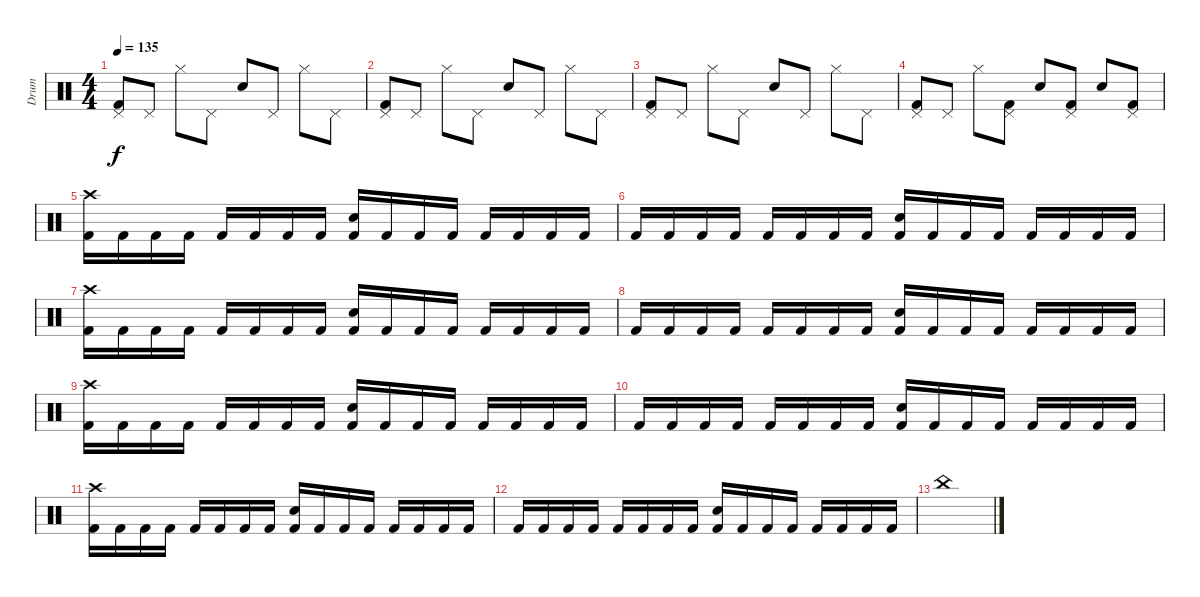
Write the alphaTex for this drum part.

\track ("Drum" "Drum") {instrument percussion}
\staff {score}
\articulation defaults
\ts (4 4)
\tempo 135
\clef neutral
\ks c
("Pedal Hi-Hat (hit)" "Kick (hit) 2").8{dy f} "Pedal Hi-Hat (hit)".8 "Hi-Hat (closed)".8 "Pedal Hi-Hat (hit)".8 "Electric Snare (hit)".8 "Pedal Hi-Hat (hit)".8 "Hi-Hat (closed)".8 "Pedal Hi-Hat (hit)".8 |
("Pedal Hi-Hat (hit)" "Kick (hit) 2").8 "Pedal Hi-Hat (hit)".8 "Hi-Hat (closed)".8 "Pedal Hi-Hat (hit)".8 "Electric Snare (hit)".8 "Pedal Hi-Hat (hit)".8 "Hi-Hat (closed)".8 "Pedal Hi-Hat (hit)".8 |
("Pedal Hi-Hat (hit)" "Kick (hit) 2").8 "Pedal Hi-Hat (hit)".8 "Hi-Hat (closed)".8 "Pedal Hi-Hat (hit)".8 "Electric Snare (hit)".8 "Pedal Hi-Hat (hit)".8 "Hi-Hat (closed)".8 "Pedal Hi-Hat (hit)".8 |
("Pedal Hi-Hat (hit)" "Kick (hit) 2").8 "Pedal Hi-Hat (hit)".8 "Hi-Hat (closed)".8 ("Pedal Hi-Hat (hit)" "Kick (hit) 2").8 "Electric Snare (hit)".8 ("Pedal Hi-Hat (hit)" "Kick (hit) 2").8 "Electric Snare (hit)".8 ("Pedal Hi-Hat (hit)" "Kick (hit) 2").8 |
("Crash high (hit)" "Kick (hit) 2").16 "Kick (hit) 2".16 "Kick (hit) 2".16 "Kick (hit) 2".16 "Kick (hit) 2".16 "Kick (hit) 2".16 "Kick (hit) 2".16 "Kick (hit) 2".16 ("Electric Snare (hit)" "Kick (hit) 2").16 "Kick (hit) 2".16 "Kick (hit) 2".16 "Kick (hit) 2".16 "Kick (hit) 2".16 "Kick (hit) 2".16 "Kick (hit) 2".16 "Kick (hit) 2".16 |
"Kick (hit) 2".16 "Kick (hit) 2".16 "Kick (hit) 2".16 "Kick (hit) 2".16 "Kick (hit) 2".16 "Kick (hit) 2".16 "Kick (hit) 2".16 "Kick (hit) 2".16 ("Electric Snare (hit)" "Kick (hit) 2").16 "Kick (hit) 2".16 "Kick (hit) 2".16 "Kick (hit) 2".16 "Kick (hit) 2".16 "Kick (hit) 2".16 "Kick (hit) 2".16 "Kick (hit) 2".16 |
("Crash high (hit)" "Kick (hit) 2").16 "Kick (hit) 2".16 "Kick (hit) 2".16 "Kick (hit) 2".16 "Kick (hit) 2".16 "Kick (hit) 2".16 "Kick (hit) 2".16 "Kick (hit) 2".16 ("Electric Snare (hit)" "Kick (hit) 2").16 "Kick (hit) 2".16 "Kick (hit) 2".16 "Kick (hit) 2".16 "Kick (hit) 2".16 "Kick (hit) 2".16 "Kick (hit) 2".16 "Kick (hit) 2".16 |
"Kick (hit) 2".16 "Kick (hit) 2".16 "Kick (hit) 2".16 "Kick (hit) 2".16 "Kick (hit) 2".16 "Kick (hit) 2".16 "Kick (hit) 2".16 "Kick (hit) 2".16 ("Electric Snare (hit)" "Kick (hit) 2").16 "Kick (hit) 2".16 "Kick (hit) 2".16 "Kick (hit) 2".16 "Kick (hit) 2".16 "Kick (hit) 2".16 "Kick (hit) 2".16 "Kick (hit) 2".16 |
("Crash high (hit)" "Kick (hit) 2").16 "Kick (hit) 2".16 "Kick (hit) 2".16 "Kick (hit) 2".16 "Kick (hit) 2".16 "Kick (hit) 2".16 "Kick (hit) 2".16 "Kick (hit) 2".16 ("Electric Snare (hit)" "Kick (hit) 2").16 "Kick (hit) 2".16 "Kick (hit) 2".16 "Kick (hit) 2".16 "Kick (hit) 2".16 "Kick (hit) 2".16 "Kick (hit) 2".16 "Kick (hit) 2".16 |
"Kick (hit) 2".16 "Kick (hit) 2".16 "Kick (hit) 2".16 "Kick (hit) 2".16 "Kick (hit) 2".16 "Kick (hit) 2".16 "Kick (hit) 2".16 "Kick (hit) 2".16 ("Electric Snare (hit)" "Kick (hit) 2").16 "Kick (hit) 2".16 "Kick (hit) 2".16 "Kick (hit) 2".16 "Kick (hit) 2".16 "Kick (hit) 2".16 "Kick (hit) 2".16 "Kick (hit) 2".16 |
("Crash high (hit)" "Kick (hit) 2").16 "Kick (hit) 2".16 "Kick (hit) 2".16 "Kick (hit) 2".16 "Kick (hit) 2".16 "Kick (hit) 2".16 "Kick (hit) 2".16 "Kick (hit) 2".16 ("Electric Snare (hit)" "Kick (hit) 2").16 "Kick (hit) 2".16 "Kick (hit) 2".16 "Kick (hit) 2".16 "Kick (hit) 2".16 "Kick (hit) 2".16 "Kick (hit) 2".16 "Kick (hit) 2".16 |
"Kick (hit) 2".16 "Kick (hit) 2".16 "Kick (hit) 2".16 "Kick (hit) 2".16 "Kick (hit) 2".16 "Kick (hit) 2".16 "Kick (hit) 2".16 "Kick (hit) 2".16 ("Electric Snare (hit)" "Kick (hit) 2").16 "Kick (hit) 2".16 "Kick (hit) 2".16 "Kick (hit) 2".16 "Kick (hit) 2".16 "Kick (hit) 2".16 "Kick (hit) 2".16 "Kick (hit) 2".16 |
"China (hit)".1
